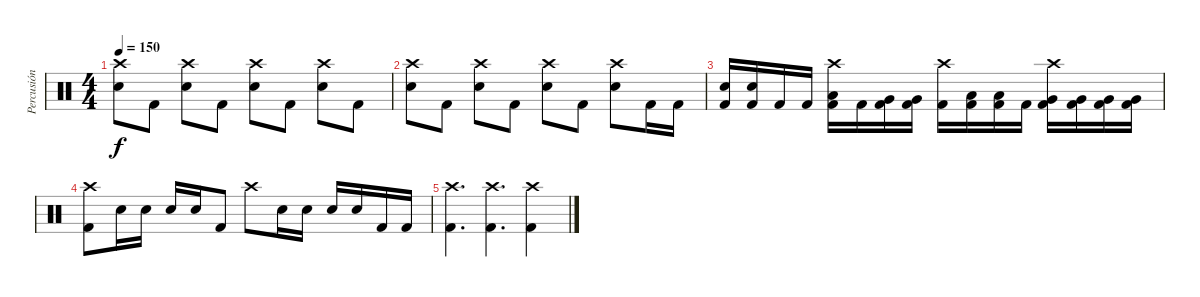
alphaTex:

\track ("Percusión" "Percusión") {instrument percussion}
\staff {score}
\articulation defaults
\ts (4 4)
\tempo 150
\clef neutral
\ks c
("Crash high (hit)" "Electric Snare (hit)").8{dy f} "Kick (hit) 2".8 ("Crash high (hit)" "Electric Snare (hit)").8 "Kick (hit) 2".8 ("Crash high (hit)" "Electric Snare (hit)").8 "Kick (hit) 2".8 ("Crash high (hit)" "Electric Snare (hit)").8 "Kick (hit) 2".8 |
("Crash high (hit)" "Electric Snare (hit)").8 "Kick (hit) 2".8 ("Crash high (hit)" "Electric Snare (hit)").8 "Kick (hit) 2".8 ("Crash high (hit)" "Electric Snare (hit)").8 "Kick (hit) 2".8 ("Crash high (hit)" "Electric Snare (hit)").8 "Kick (hit) 2".16 "Kick (hit) 2".16 |
("Electric Snare (hit)" "Kick (hit) 2").16 ("Electric Snare (hit)" "Kick (hit) 2").16 "Kick (hit) 2".16 "Kick (hit) 2".16 ("Crash high (hit)" "Low Tom (hit)" "Kick (hit) 2").16 "Kick (hit) 2".16 ("Very Low Tom (hit)" "Kick (hit) 2").16 ("Very Low Tom (hit)" "Kick (hit) 2").16 ("Crash high (hit)" "Kick (hit) 2").16 ("Low Tom (hit)" "Kick (hit) 2").16 ("Low Tom (hit)" "Kick (hit) 2").16 "Kick (hit) 2".16 ("Crash high (hit)" "Very Low Tom (hit)" "Kick (hit) 2").16 ("Very Low Tom (hit)" "Kick (hit) 2").16 ("Very Low Tom (hit)" "Kick (hit) 2").16 ("Very Low Tom (hit)" "Kick (hit) 2").16 |
("Crash high (hit)" "Kick (hit) 2").8 "Electric Snare (hit)".16 "Electric Snare (hit)".16 "Electric Snare (hit)".16 "Electric Snare (hit)".16 "Kick (hit) 2".8 "Crash high (hit)".8 "Electric Snare (hit)".16 "Electric Snare (hit)".16 "Electric Snare (hit)".16 "Electric Snare (hit)".16 "Kick (hit) 2".16 "Kick (hit) 2".16 |
("Crash high (hit)" "Kick (hit) 2").4{d} ("Crash high (hit)" "Kick (hit) 2").4{d} ("Crash high (hit)" "Kick (hit) 2").4
